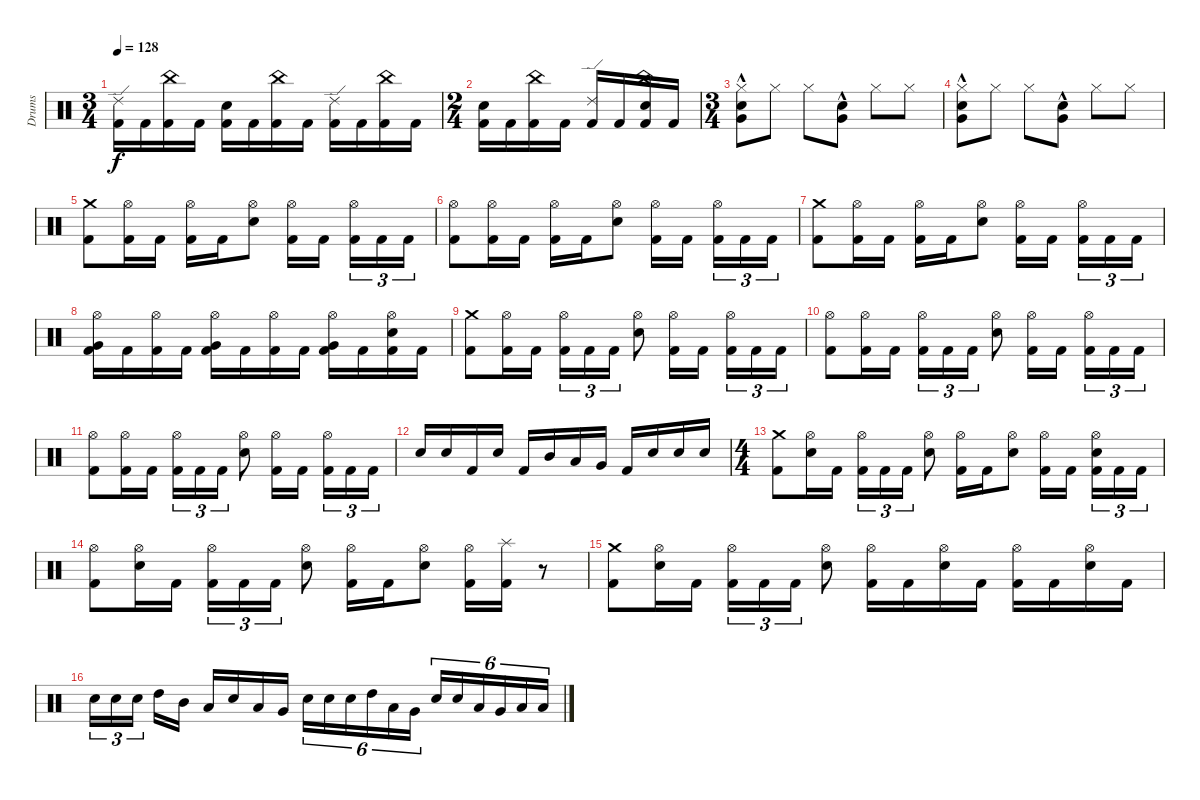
\track ("Drums" "Drums") {instrument percussion}
\staff {score}
\articulation defaults
\ts (3 4)
\tempo 128
\clef neutral
\ks c
("Ride (edge) 2" "Kick (hit) 2").16{dy f} "Kick (hit) 2".16 ("China (hit)" "Kick (hit) 2").16 "Kick (hit) 2".16 ("Electric Snare (hit)" "Kick (hit) 2").16 "Kick (hit) 2".16 ("China (hit)" "Kick (hit) 2").16 "Kick (hit) 2".16 ("Ride (edge) 2" "Kick (hit) 2").16 "Kick (hit) 2".16 ("China (hit)" "Kick (hit) 2").16 "Kick (hit) 2".16 |
\ts (2 4)
("Electric Snare (hit)" "Kick (hit) 2").16 "Kick (hit) 2".16 ("China (hit)" "Kick (hit) 2").16 "Kick (hit) 2".16 ("Ride (edge) 2" "Kick (hit) 2").16 "Kick (hit) 2".16 ("China (hit)" "Electric Snare (hit)" "Kick (hit) 2").16 "Kick (hit) 2".16 |
\ts (3 4)
("Hi-Hat (closed)" "Very Low Tom (hit)"{hac} "Electric Snare (hit)"{hac}).8 "Hi-Hat (closed)".8 "Hi-Hat (closed)".8 ("Very Low Tom (hit)"{hac} "Electric Snare (hit)"{hac}).8 "Hi-Hat (closed)".8 "Hi-Hat (closed)".8 |
("Hi-Hat (closed)" "Very Low Tom (hit)"{hac} "Electric Snare (hit)"{hac}).8 "Hi-Hat (closed)".8 "Hi-Hat (closed)".8 ("Very Low Tom (hit)"{hac} "Electric Snare (hit)"{hac}).8 "Hi-Hat (closed)".8 "Hi-Hat (closed)".8 |
("Kick (hit) 2" "Crash medium (hit)").8 ("Kick (hit) 2" "Hi-Hat (open)").16 "Kick (hit) 2".16 ("Kick (hit) 2" "Hi-Hat (open)").16 "Kick (hit) 2".16 ("Electric Snare (hit)" "Hi-Hat (open)").8 ("Kick (hit) 2" "Hi-Hat (open)").16 "Kick (hit) 2".16 ("Kick (hit) 2" "Hi-Hat (open)").16{tu (3 2)} "Kick (hit) 2".16{tu (3 2)} "Kick (hit) 2".16{tu (3 2)} |
("Hi-Hat (open)" "Kick (hit) 2").8 ("Kick (hit) 2" "Hi-Hat (open)").16 "Kick (hit) 2".16 ("Kick (hit) 2" "Hi-Hat (open)").16 "Kick (hit) 2".16 ("Electric Snare (hit)" "Hi-Hat (open)").8 ("Kick (hit) 2" "Hi-Hat (open)").16 "Kick (hit) 2".16 ("Kick (hit) 2" "Hi-Hat (open)").16{tu (3 2)} "Kick (hit) 2".16{tu (3 2)} "Kick (hit) 2".16{tu (3 2)} |
("Kick (hit) 2" "Crash medium (hit)").8 ("Kick (hit) 2" "Hi-Hat (open)").16 "Kick (hit) 2".16 ("Kick (hit) 2" "Hi-Hat (open)").16 "Kick (hit) 2".16 ("Electric Snare (hit)" "Hi-Hat (open)").8 ("Kick (hit) 2" "Hi-Hat (open)").16 "Kick (hit) 2".16 ("Kick (hit) 2" "Hi-Hat (open)").16{tu (3 2)} "Kick (hit) 2".16{tu (3 2)} "Kick (hit) 2".16{tu (3 2)} |
("Very Low Tom (hit)" "Hi-Hat (open)" "Kick (hit) 2").16 "Kick (hit) 2".16 ("Hi-Hat (open)" "Kick (hit) 2").16 "Kick (hit) 2".16 ("Very Low Tom (hit)" "Hi-Hat (open)" "Kick (hit) 2").16 "Kick (hit) 2".16 ("Hi-Hat (open)" "Kick (hit) 2").16 "Kick (hit) 2".16 ("Very Low Tom (hit)" "Hi-Hat (open)" "Kick (hit) 2").16 "Kick (hit) 2".16 ("Hi-Hat (open)" "Electric Snare (hit)" "Kick (hit) 2").16 "Kick (hit) 2".16 |
("Kick (hit) 2" "Crash medium (hit)").8 ("Kick (hit) 2" "Hi-Hat (open)").16 "Kick (hit) 2".16 ("Kick (hit) 2" "Hi-Hat (open)").16{tu (3 2)} "Kick (hit) 2".16{tu (3 2)} "Kick (hit) 2".16{tu (3 2)} ("Electric Snare (hit)" "Hi-Hat (open)").8 ("Kick (hit) 2" "Hi-Hat (open)").16 "Kick (hit) 2".16 ("Kick (hit) 2" "Hi-Hat (open)").16{tu (3 2)} "Kick (hit) 2".16{tu (3 2)} "Kick (hit) 2".16{tu (3 2)} |
("Hi-Hat (open)" "Kick (hit) 2").8 ("Kick (hit) 2" "Hi-Hat (open)").16 "Kick (hit) 2".16 ("Kick (hit) 2" "Hi-Hat (open)").16{tu (3 2)} "Kick (hit) 2".16{tu (3 2)} "Kick (hit) 2".16{tu (3 2)} ("Electric Snare (hit)" "Hi-Hat (open)").8 ("Kick (hit) 2" "Hi-Hat (open)").16 "Kick (hit) 2".16 ("Kick (hit) 2" "Hi-Hat (open)").16{tu (3 2)} "Kick (hit) 2".16{tu (3 2)} "Kick (hit) 2".16{tu (3 2)} |
("Hi-Hat (open)" "Kick (hit) 2").8 ("Kick (hit) 2" "Hi-Hat (open)").16 "Kick (hit) 2".16 ("Kick (hit) 2" "Hi-Hat (open)").16{tu (3 2)} "Kick (hit) 2".16{tu (3 2)} "Kick (hit) 2".16{tu (3 2)} ("Electric Snare (hit)" "Hi-Hat (open)").8 ("Kick (hit) 2" "Hi-Hat (open)").16 "Kick (hit) 2".16 ("Kick (hit) 2" "Hi-Hat (open)").16{tu (3 2)} "Kick (hit) 2".16{tu (3 2)} "Kick (hit) 2".16{tu (3 2)} |
"Electric Snare (hit)".16 "Electric Snare (hit)".16 "Kick (hit) 2".16 "Electric Snare (hit)".16 "Kick (hit) 2".16 "Mid Tom (hit)".16 "Low Tom (hit)".16 "Very Low Tom (hit)".16 "Kick (hit) 2".16 "Electric Snare (hit)".16 "Electric Snare (hit)".16 "Electric Snare (hit)".16 |
\ts (4 4)
("Kick (hit) 2" "Crash medium (hit)").8 ("Electric Snare (hit)" "Hi-Hat (open)").16 "Kick (hit) 2".16 ("Kick (hit) 2" "Hi-Hat (open)").16{tu (3 2)} "Kick (hit) 2".16{tu (3 2)} "Kick (hit) 2".16{tu (3 2)} ("Electric Snare (hit)" "Hi-Hat (open)").8 ("Kick (hit) 2" "Hi-Hat (open)").16 "Kick (hit) 2".16 ("Electric Snare (hit)" "Hi-Hat (open)").8 ("Kick (hit) 2" "Hi-Hat (open)").16 "Kick (hit) 2".16 ("Kick (hit) 2" "Electric Snare (hit)" "Hi-Hat (open)").16{tu (3 2)} "Kick (hit) 2".16{tu (3 2)} "Kick (hit) 2".16{tu (3 2)} |
("Hi-Hat (open)" "Kick (hit) 2").8 ("Electric Snare (hit)" "Hi-Hat (open)").16 "Kick (hit) 2".16 ("Kick (hit) 2" "Hi-Hat (open)").16{tu (3 2)} "Kick (hit) 2".16{tu (3 2)} "Kick (hit) 2".16{tu (3 2)} ("Electric Snare (hit)" "Hi-Hat (open)").8 ("Kick (hit) 2" "Hi-Hat (open)").16 "Kick (hit) 2".16 ("Electric Snare (hit)" "Hi-Hat (open)").8 ("Kick (hit) 2" "Hi-Hat (open)").16 ("Splash (hit)" "Kick (hit) 2").16 r.8 |
("Kick (hit) 2" "Crash medium (hit)").8 ("Electric Snare (hit)" "Hi-Hat (open)").16 "Kick (hit) 2".16 ("Kick (hit) 2" "Hi-Hat (open)").16{tu (3 2)} "Kick (hit) 2".16{tu (3 2)} "Kick (hit) 2".16{tu (3 2)} ("Electric Snare (hit)" "Hi-Hat (open)").8 ("Kick (hit) 2" "Hi-Hat (open)").16 "Kick (hit) 2".16 ("Electric Snare (hit)" "Hi-Hat (open)").16 "Kick (hit) 2".16 ("Kick (hit) 2" "Hi-Hat (open)").16 "Kick (hit) 2".16 ("Electric Snare (hit)" "Hi-Hat (open)").16 "Kick (hit) 2".16 |
"Electric Snare (hit)".16{tu (3 2)} "Electric Snare (hit)".16{tu (3 2)} "Electric Snare (hit)".16{tu (3 2)} "High Tom (hit)".16 "Mid Tom (hit)".16 "Low Tom (hit)".16 "Electric Snare (hit)".16 "Low Tom (hit)".16 "Very Low Tom (hit)".16 "Electric Snare (hit)".16{tu (6 4)} "Electric Snare (hit)".16{tu (6 4)} "Electric Snare (hit)".16{tu (6 4)} "High Tom (hit)".16{tu (6 4)} "Low Tom (hit)".16{tu (6 4)} "Very Low Tom (hit)".16{tu (6 4)} "Electric Snare (hit)".16{tu (6 4)} "Electric Snare (hit)".16{tu (6 4)} "Low Tom (hit)".16{tu (6 4)} "Very Low Tom (hit)".16{tu (6 4)} "Low Floor Tom (hit)".16{tu (6 4)} "Low Floor Tom (hit)".16{tu (6 4)}
